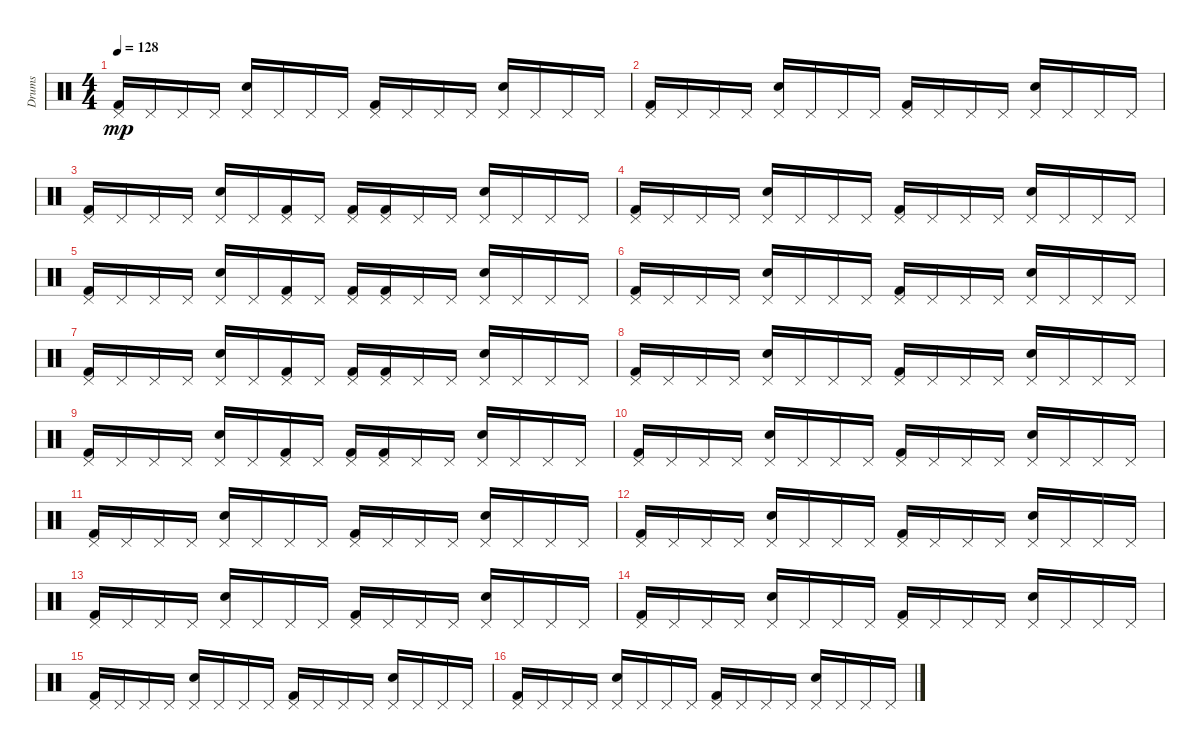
\track ("Drums" "Drums") {instrument percussion}
\staff {score}
\articulation defaults
\ts (4 4)
\tempo 128
\clef neutral
\ks c
("Pedal Hi-Hat (hit)" "Kick (hit) 2").16{dy mp} "Pedal Hi-Hat (hit)".16 "Pedal Hi-Hat (hit)".16 "Pedal Hi-Hat (hit)".16 ("Electric Snare (hit)" "Pedal Hi-Hat (hit)").16 "Pedal Hi-Hat (hit)".16 "Pedal Hi-Hat (hit)".16 "Pedal Hi-Hat (hit)".16 ("Pedal Hi-Hat (hit)" "Kick (hit) 2").16 "Pedal Hi-Hat (hit)".16 "Pedal Hi-Hat (hit)".16 "Pedal Hi-Hat (hit)".16 ("Pedal Hi-Hat (hit)" "Electric Snare (hit)").16 "Pedal Hi-Hat (hit)".16 "Pedal Hi-Hat (hit)".16 "Pedal Hi-Hat (hit)".16 |
("Kick (hit) 2" "Pedal Hi-Hat (hit)").16 "Pedal Hi-Hat (hit)".16 "Pedal Hi-Hat (hit)".16 "Pedal Hi-Hat (hit)".16 ("Pedal Hi-Hat (hit)" "Electric Snare (hit)").16 "Pedal Hi-Hat (hit)".16 "Pedal Hi-Hat (hit)".16 "Pedal Hi-Hat (hit)".16 ("Pedal Hi-Hat (hit)" "Kick (hit) 2").16 "Pedal Hi-Hat (hit)".16 "Pedal Hi-Hat (hit)".16 "Pedal Hi-Hat (hit)".16 ("Pedal Hi-Hat (hit)" "Electric Snare (hit)").16 "Pedal Hi-Hat (hit)".16 "Pedal Hi-Hat (hit)".16 "Pedal Hi-Hat (hit)".16 |
("Pedal Hi-Hat (hit)" "Kick (hit) 2").16 "Pedal Hi-Hat (hit)".16 "Pedal Hi-Hat (hit)".16 "Pedal Hi-Hat (hit)".16 ("Electric Snare (hit)" "Pedal Hi-Hat (hit)").16 "Pedal Hi-Hat (hit)".16 ("Kick (hit) 2" "Pedal Hi-Hat (hit)").16 "Pedal Hi-Hat (hit)".16 ("Kick (hit) 2" "Pedal Hi-Hat (hit)").16 ("Kick (hit) 2" "Pedal Hi-Hat (hit)").16 "Pedal Hi-Hat (hit)".16 "Pedal Hi-Hat (hit)".16 ("Pedal Hi-Hat (hit)" "Electric Snare (hit)").16 "Pedal Hi-Hat (hit)".16 "Pedal Hi-Hat (hit)".16 "Pedal Hi-Hat (hit)".16 |
("Pedal Hi-Hat (hit)" "Kick (hit) 2").16 "Pedal Hi-Hat (hit)".16 "Pedal Hi-Hat (hit)".16 "Pedal Hi-Hat (hit)".16 ("Electric Snare (hit)" "Pedal Hi-Hat (hit)").16 "Pedal Hi-Hat (hit)".16 "Pedal Hi-Hat (hit)".16 "Pedal Hi-Hat (hit)".16 ("Pedal Hi-Hat (hit)" "Kick (hit) 2").16 "Pedal Hi-Hat (hit)".16 "Pedal Hi-Hat (hit)".16 "Pedal Hi-Hat (hit)".16 ("Pedal Hi-Hat (hit)" "Electric Snare (hit)").16 "Pedal Hi-Hat (hit)".16 "Pedal Hi-Hat (hit)".16 "Pedal Hi-Hat (hit)".16 |
("Pedal Hi-Hat (hit)" "Kick (hit) 2").16 "Pedal Hi-Hat (hit)".16 "Pedal Hi-Hat (hit)".16 "Pedal Hi-Hat (hit)".16 ("Pedal Hi-Hat (hit)" "Electric Snare (hit)").16 "Pedal Hi-Hat (hit)".16 ("Pedal Hi-Hat (hit)" "Kick (hit) 2").16 "Pedal Hi-Hat (hit)".16 ("Kick (hit) 2" "Pedal Hi-Hat (hit)").16 ("Pedal Hi-Hat (hit)" "Kick (hit) 2").16 "Pedal Hi-Hat (hit)".16 "Pedal Hi-Hat (hit)".16 ("Pedal Hi-Hat (hit)" "Electric Snare (hit)").16 "Pedal Hi-Hat (hit)".16 "Pedal Hi-Hat (hit)".16 "Pedal Hi-Hat (hit)".16 |
("Kick (hit) 2" "Pedal Hi-Hat (hit)").16 "Pedal Hi-Hat (hit)".16 "Pedal Hi-Hat (hit)".16 "Pedal Hi-Hat (hit)".16 ("Pedal Hi-Hat (hit)" "Electric Snare (hit)").16 "Pedal Hi-Hat (hit)".16 "Pedal Hi-Hat (hit)".16 "Pedal Hi-Hat (hit)".16 ("Pedal Hi-Hat (hit)" "Kick (hit) 2").16 "Pedal Hi-Hat (hit)".16 "Pedal Hi-Hat (hit)".16 "Pedal Hi-Hat (hit)".16 ("Electric Snare (hit)" "Pedal Hi-Hat (hit)").16 "Pedal Hi-Hat (hit)".16 "Pedal Hi-Hat (hit)".16 "Pedal Hi-Hat (hit)".16 |
("Kick (hit) 2" "Pedal Hi-Hat (hit)").16 "Pedal Hi-Hat (hit)".16 "Pedal Hi-Hat (hit)".16 "Pedal Hi-Hat (hit)".16 ("Electric Snare (hit)" "Pedal Hi-Hat (hit)").16 "Pedal Hi-Hat (hit)".16 ("Pedal Hi-Hat (hit)" "Kick (hit) 2").16 "Pedal Hi-Hat (hit)".16 ("Kick (hit) 2" "Pedal Hi-Hat (hit)").16 ("Kick (hit) 2" "Pedal Hi-Hat (hit)").16 "Pedal Hi-Hat (hit)".16 "Pedal Hi-Hat (hit)".16 ("Electric Snare (hit)" "Pedal Hi-Hat (hit)").16 "Pedal Hi-Hat (hit)".16 "Pedal Hi-Hat (hit)".16 "Pedal Hi-Hat (hit)".16 |
("Pedal Hi-Hat (hit)" "Kick (hit) 2").16 "Pedal Hi-Hat (hit)".16 "Pedal Hi-Hat (hit)".16 "Pedal Hi-Hat (hit)".16 ("Electric Snare (hit)" "Pedal Hi-Hat (hit)").16 "Pedal Hi-Hat (hit)".16 "Pedal Hi-Hat (hit)".16 "Pedal Hi-Hat (hit)".16 ("Pedal Hi-Hat (hit)" "Kick (hit) 2").16 "Pedal Hi-Hat (hit)".16 "Pedal Hi-Hat (hit)".16 "Pedal Hi-Hat (hit)".16 ("Pedal Hi-Hat (hit)" "Electric Snare (hit)").16 "Pedal Hi-Hat (hit)".16 "Pedal Hi-Hat (hit)".16 "Pedal Hi-Hat (hit)".16 |
("Kick (hit) 2" "Pedal Hi-Hat (hit)").16 "Pedal Hi-Hat (hit)".16 "Pedal Hi-Hat (hit)".16 "Pedal Hi-Hat (hit)".16 ("Electric Snare (hit)" "Pedal Hi-Hat (hit)").16 "Pedal Hi-Hat (hit)".16 ("Kick (hit) 2" "Pedal Hi-Hat (hit)").16 "Pedal Hi-Hat (hit)".16 ("Kick (hit) 2" "Pedal Hi-Hat (hit)").16 ("Pedal Hi-Hat (hit)" "Kick (hit) 2").16 "Pedal Hi-Hat (hit)".16 "Pedal Hi-Hat (hit)".16 ("Pedal Hi-Hat (hit)" "Electric Snare (hit)").16 "Pedal Hi-Hat (hit)".16 "Pedal Hi-Hat (hit)".16 "Pedal Hi-Hat (hit)".16 |
("Kick (hit) 2" "Pedal Hi-Hat (hit)").16 "Pedal Hi-Hat (hit)".16 "Pedal Hi-Hat (hit)".16 "Pedal Hi-Hat (hit)".16 ("Pedal Hi-Hat (hit)" "Electric Snare (hit)").16 "Pedal Hi-Hat (hit)".16 "Pedal Hi-Hat (hit)".16 "Pedal Hi-Hat (hit)".16 ("Kick (hit) 2" "Pedal Hi-Hat (hit)").16 "Pedal Hi-Hat (hit)".16 "Pedal Hi-Hat (hit)".16 "Pedal Hi-Hat (hit)".16 ("Electric Snare (hit)" "Pedal Hi-Hat (hit)").16 "Pedal Hi-Hat (hit)".16 "Pedal Hi-Hat (hit)".16 "Pedal Hi-Hat (hit)".16 |
("Pedal Hi-Hat (hit)" "Kick (hit) 2").16 "Pedal Hi-Hat (hit)".16 "Pedal Hi-Hat (hit)".16 "Pedal Hi-Hat (hit)".16 ("Electric Snare (hit)" "Pedal Hi-Hat (hit)").16 "Pedal Hi-Hat (hit)".16 "Pedal Hi-Hat (hit)".16 "Pedal Hi-Hat (hit)".16 ("Pedal Hi-Hat (hit)" "Kick (hit) 2").16 "Pedal Hi-Hat (hit)".16 "Pedal Hi-Hat (hit)".16 "Pedal Hi-Hat (hit)".16 ("Electric Snare (hit)" "Pedal Hi-Hat (hit)").16 "Pedal Hi-Hat (hit)".16 "Pedal Hi-Hat (hit)".16 "Pedal Hi-Hat (hit)".16 |
("Pedal Hi-Hat (hit)" "Kick (hit) 2").16 "Pedal Hi-Hat (hit)".16 "Pedal Hi-Hat (hit)".16 "Pedal Hi-Hat (hit)".16 ("Electric Snare (hit)" "Pedal Hi-Hat (hit)").16 "Pedal Hi-Hat (hit)".16 "Pedal Hi-Hat (hit)".16 "Pedal Hi-Hat (hit)".16 ("Kick (hit) 2" "Pedal Hi-Hat (hit)").16 "Pedal Hi-Hat (hit)".16 "Pedal Hi-Hat (hit)".16 "Pedal Hi-Hat (hit)".16 ("Pedal Hi-Hat (hit)" "Electric Snare (hit)").16 "Pedal Hi-Hat (hit)".16 "Pedal Hi-Hat (hit)".16 "Pedal Hi-Hat (hit)".16 |
("Kick (hit) 2" "Pedal Hi-Hat (hit)").16 "Pedal Hi-Hat (hit)".16 "Pedal Hi-Hat (hit)".16 "Pedal Hi-Hat (hit)".16 ("Electric Snare (hit)" "Pedal Hi-Hat (hit)").16 "Pedal Hi-Hat (hit)".16 "Pedal Hi-Hat (hit)".16 "Pedal Hi-Hat (hit)".16 ("Kick (hit) 2" "Pedal Hi-Hat (hit)").16 "Pedal Hi-Hat (hit)".16 "Pedal Hi-Hat (hit)".16 "Pedal Hi-Hat (hit)".16 ("Pedal Hi-Hat (hit)" "Electric Snare (hit)").16 "Pedal Hi-Hat (hit)".16 "Pedal Hi-Hat (hit)".16 "Pedal Hi-Hat (hit)".16 |
("Pedal Hi-Hat (hit)" "Kick (hit) 2").16 "Pedal Hi-Hat (hit)".16 "Pedal Hi-Hat (hit)".16 "Pedal Hi-Hat (hit)".16 ("Pedal Hi-Hat (hit)" "Electric Snare (hit)").16 "Pedal Hi-Hat (hit)".16 "Pedal Hi-Hat (hit)".16 "Pedal Hi-Hat (hit)".16 ("Pedal Hi-Hat (hit)" "Kick (hit) 2").16 "Pedal Hi-Hat (hit)".16 "Pedal Hi-Hat (hit)".16 "Pedal Hi-Hat (hit)".16 ("Pedal Hi-Hat (hit)" "Electric Snare (hit)").16 "Pedal Hi-Hat (hit)".16 "Pedal Hi-Hat (hit)".16 "Pedal Hi-Hat (hit)".16 |
("Pedal Hi-Hat (hit)" "Kick (hit) 2").16 "Pedal Hi-Hat (hit)".16 "Pedal Hi-Hat (hit)".16 "Pedal Hi-Hat (hit)".16 ("Pedal Hi-Hat (hit)" "Electric Snare (hit)").16 "Pedal Hi-Hat (hit)".16 "Pedal Hi-Hat (hit)".16 "Pedal Hi-Hat (hit)".16 ("Pedal Hi-Hat (hit)" "Kick (hit) 2").16 "Pedal Hi-Hat (hit)".16 "Pedal Hi-Hat (hit)".16 "Pedal Hi-Hat (hit)".16 ("Pedal Hi-Hat (hit)" "Electric Snare (hit)").16 "Pedal Hi-Hat (hit)".16 "Pedal Hi-Hat (hit)".16 "Pedal Hi-Hat (hit)".16 |
("Pedal Hi-Hat (hit)" "Kick (hit) 2").16 "Pedal Hi-Hat (hit)".16 "Pedal Hi-Hat (hit)".16 "Pedal Hi-Hat (hit)".16 ("Electric Snare (hit)" "Pedal Hi-Hat (hit)").16 "Pedal Hi-Hat (hit)".16 "Pedal Hi-Hat (hit)".16 "Pedal Hi-Hat (hit)".16 ("Pedal Hi-Hat (hit)" "Kick (hit) 2").16 "Pedal Hi-Hat (hit)".16 "Pedal Hi-Hat (hit)".16 "Pedal Hi-Hat (hit)".16 ("Electric Snare (hit)" "Pedal Hi-Hat (hit)").16 "Pedal Hi-Hat (hit)".16 "Pedal Hi-Hat (hit)".16 "Pedal Hi-Hat (hit)".16
